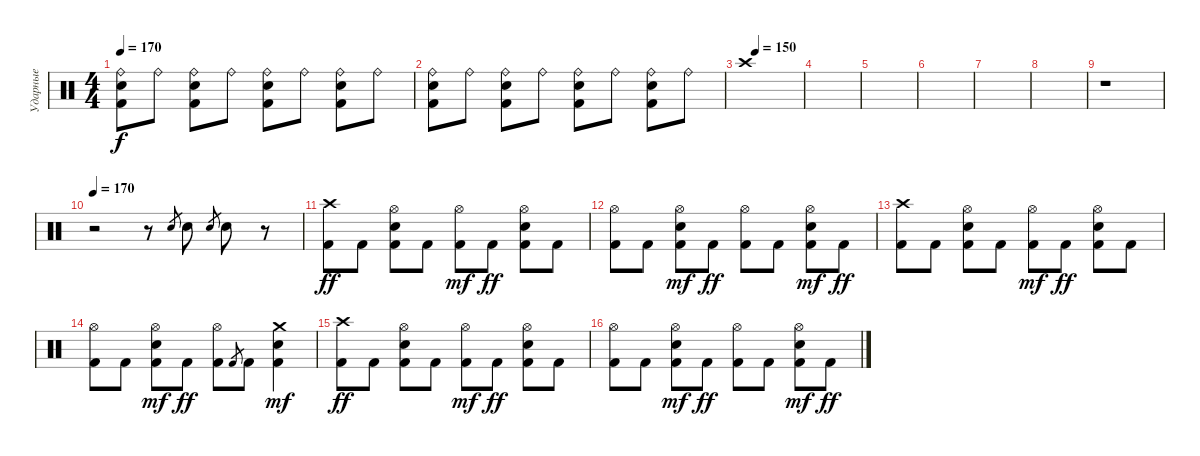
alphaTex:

\track ("Ударные" "Ударные") {instrument percussion}
\staff {score}
\articulation defaults
\ts (4 4)
\tempo 170
\clef neutral
\ks c
("Kick (hit) 2" "Ride (bell)" "Electric Snare (hit)").8{dy f} "Ride (bell)".8 ("Ride (bell)" "Kick (hit) 2" "Electric Snare (hit)").8 "Ride (bell)".8 ("Ride (bell)" "Kick (hit) 2" "Electric Snare (hit)").8 "Ride (bell)".8 ("Ride (bell)" "Kick (hit) 2" "Electric Snare (hit)").8 "Ride (bell)".8 |
("Kick (hit) 2" "Ride (bell)" "Electric Snare (hit)").8 "Ride (bell)".8 ("Ride (bell)" "Kick (hit) 2" "Electric Snare (hit)").8 "Ride (bell)".8 ("Ride (bell)" "Kick (hit) 2" "Electric Snare (hit)").8 "Ride (bell)".8 ("Ride (bell)" "Kick (hit) 2" "Electric Snare (hit)").8 "Ride (bell)".8 |
\tempo (150 0.1875)
"Crash high (hit)".1 |
|
|
|
|
|
r.1 |
\tempo 170
r.2 r.8 "Electric Snare (hit)".8{gr} "Electric Snare (hit)".8 "Electric Snare (hit)".8{gr} "Electric Snare (hit)".8 r.8 |
("Crash high (hit)" "Kick (hit) 2").8{dy ff} "Kick (hit) 2".8 ("Hi-Hat (open)" "Kick (hit) 2" "Electric Snare (hit)").8 "Kick (hit) 2".8 ("Kick (hit) 2" "Hi-Hat (open)").8{dy mf} "Kick (hit) 2".8{dy ff} ("Kick (hit) 2" "Hi-Hat (open)" "Electric Snare (hit)").8 "Kick (hit) 2".8 |
("Hi-Hat (open)" "Kick (hit) 2").8 "Kick (hit) 2".8 ("Kick (hit) 2" "Electric Snare (hit)" "Hi-Hat (open)").8{dy mf} "Kick (hit) 2".8{dy ff} ("Hi-Hat (open)" "Kick (hit) 2").8 "Kick (hit) 2".8 ("Kick (hit) 2" "Electric Snare (hit)" "Hi-Hat (open)").8{dy mf} "Kick (hit) 2".8{dy ff} |
("Crash high (hit)" "Kick (hit) 2").8 "Kick (hit) 2".8 ("Hi-Hat (open)" "Kick (hit) 2" "Electric Snare (hit)").8 "Kick (hit) 2".8 ("Kick (hit) 2" "Hi-Hat (open)").8{dy mf} "Kick (hit) 2".8{dy ff} ("Kick (hit) 2" "Hi-Hat (open)" "Electric Snare (hit)").8 "Kick (hit) 2".8 |
("Hi-Hat (open)" "Kick (hit) 2").8 "Kick (hit) 2".8 ("Kick (hit) 2" "Electric Snare (hit)" "Hi-Hat (open)").8{dy mf} "Kick (hit) 2".8{dy ff} ("Hi-Hat (open)" "Kick (hit) 2").8 "Kick (hit) 2".8{gr} "Kick (hit) 2".8 ("Kick (hit) 2" "Electric Snare (hit)" "Crash medium (hit)").4{dy mf} |
("Crash high (hit)" "Kick (hit) 2").8{dy ff} "Kick (hit) 2".8 ("Hi-Hat (open)" "Kick (hit) 2" "Electric Snare (hit)").8 "Kick (hit) 2".8 ("Kick (hit) 2" "Hi-Hat (open)").8{dy mf} "Kick (hit) 2".8{dy ff} ("Kick (hit) 2" "Hi-Hat (open)" "Electric Snare (hit)").8 "Kick (hit) 2".8 |
("Hi-Hat (open)" "Kick (hit) 2").8 "Kick (hit) 2".8 ("Kick (hit) 2" "Electric Snare (hit)" "Hi-Hat (open)").8{dy mf} "Kick (hit) 2".8{dy ff} ("Hi-Hat (open)" "Kick (hit) 2").8 "Kick (hit) 2".8 ("Kick (hit) 2" "Electric Snare (hit)" "Hi-Hat (open)").8{dy mf} "Kick (hit) 2".8{dy ff}
